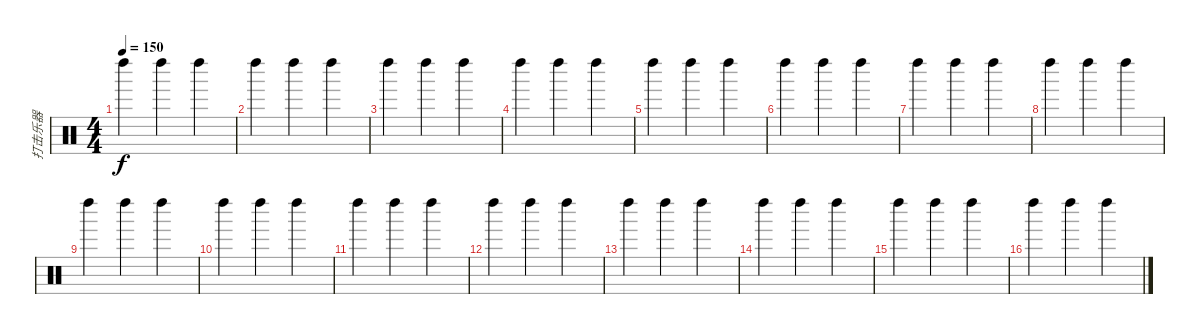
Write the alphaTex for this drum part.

\track ("打击乐器" "打击乐器") {instrument percussion bank 2}
\staff {score}
\articulation defaults
\ts (4 4)
\tempo 150
\clef neutral
\ks c "Left Maraca (hit)".4{dy f} "Left Maraca (hit)".4 "Left Maraca (hit)".4
|
"Left Maraca (hit)".4 "Left Maraca (hit)".4 "Left Maraca (hit)".4 |
"Left Maraca (hit)".4 "Left Maraca (hit)".4 "Left Maraca (hit)".4 |
"Left Maraca (hit)".4 "Left Maraca (hit)".4 "Left Maraca (hit)".4 |
"Left Maraca (hit)".4 "Left Maraca (hit)".4 "Left Maraca (hit)".4 |
"Left Maraca (hit)".4 "Left Maraca (hit)".4 "Left Maraca (hit)".4 |
"Left Maraca (hit)".4 "Left Maraca (hit)".4 "Left Maraca (hit)".4 |
"Left Maraca (hit)".4 "Left Maraca (hit)".4 "Left Maraca (hit)".4 |
"Left Maraca (hit)".4 "Left Maraca (hit)".4 "Left Maraca (hit)".4 |
"Left Maraca (hit)".4 "Left Maraca (hit)".4 "Left Maraca (hit)".4 |
"Left Maraca (hit)".4 "Left Maraca (hit)".4 "Left Maraca (hit)".4 |
"Left Maraca (hit)".4 "Left Maraca (hit)".4 "Left Maraca (hit)".4 |
"Left Maraca (hit)".4 "Left Maraca (hit)".4 "Left Maraca (hit)".4 |
"Left Maraca (hit)".4 "Left Maraca (hit)".4 "Left Maraca (hit)".4 |
"Left Maraca (hit)".4 "Left Maraca (hit)".4 "Left Maraca (hit)".4 |
"Left Maraca (hit)".4 "Left Maraca (hit)".4 "Left Maraca (hit)".4
